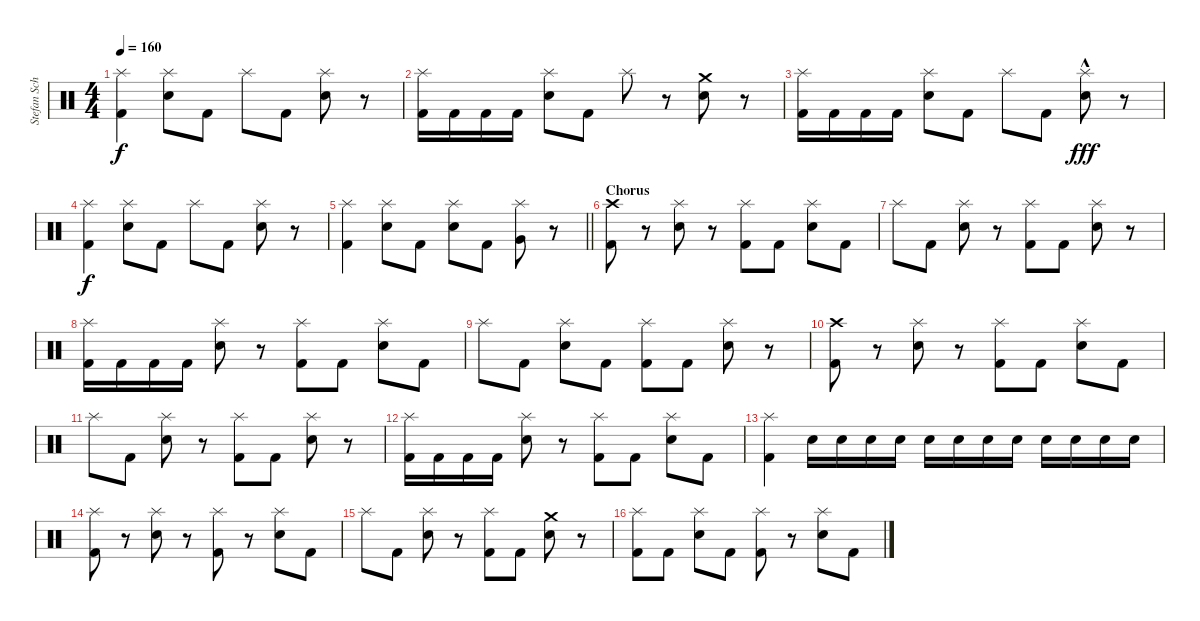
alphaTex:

\track ("Stefan Schwarzmann" "Stefan Sch") {instrument percussion}
\staff {score}
\articulation defaults
\ts (4 4)
\tempo 160
\clef neutral
\ks c
("Splash (hit)" "Kick (hit) 2").4{dy f} ("Splash (hit)" "Snare (hit) 2").8 "Kick (hit) 2".8 "Splash (hit)".8 "Kick (hit) 2".8 ("Splash (hit)" "Snare (hit) 2").8 r.8 |
("Splash (hit)" "Kick (hit) 2").16 "Kick (hit) 2".16 "Kick (hit) 2".16 "Kick (hit) 2".16 ("Splash (hit)" "Snare (hit) 2").8 "Kick (hit) 2".8 "Splash (hit)".8 r.8 ("Crash medium (hit)" "Snare (hit) 2").8 r.8 |
("Splash (hit)" "Kick (hit) 2").16 "Kick (hit) 2".16 "Kick (hit) 2".16 "Kick (hit) 2".16 ("Splash (hit)" "Snare (hit) 2").8 "Kick (hit) 2".8 "Splash (hit)".8 "Kick (hit) 2".8 ("Splash (hit)"{hac} "Snare (hit) 2").8{dy fff} r.8 |
("Splash (hit)" "Kick (hit) 2").4{dy f} ("Splash (hit)" "Snare (hit) 2").8 "Kick (hit) 2".8 "Splash (hit)".8 "Kick (hit) 2".8 ("Splash (hit)" "Snare (hit) 2").8 r.8 |
\barLineRight lightlight
("Splash (hit)" "Kick (hit) 2").4 ("Splash (hit)" "Snare (hit) 2").8 "Kick (hit) 2".8 ("Splash (hit)" "Snare (hit) 2").8 "Kick (hit) 2".8 ("Splash (hit)" "Very Low Tom (hit)").8 r.8 |
\section ("" "Chorus")
("Crash high (hit)" "Kick (hit) 2").8 r.8 ("Splash (hit)" "Snare (hit) 2").8 r.8 ("Splash (hit)" "Kick (hit) 2").8 "Kick (hit) 2".8 ("Splash (hit)" "Snare (hit) 2").8 "Kick (hit) 2".8 |
"Splash (hit)".8 "Kick (hit) 2".8 ("Splash (hit)" "Snare (hit) 2").8 r.8 ("Splash (hit)" "Kick (hit) 2").8 "Kick (hit) 2".8 ("Splash (hit)" "Snare (hit) 2").8 r.8 |
("Splash (hit)" "Kick (hit) 2").16 "Kick (hit) 2".16 "Kick (hit) 2".16 "Kick (hit) 2".16 ("Splash (hit)" "Snare (hit) 2").8 r.8 ("Splash (hit)" "Kick (hit) 2").8 "Kick (hit) 2".8 ("Splash (hit)" "Snare (hit) 2").8 "Kick (hit) 2".8 |
"Splash (hit)".8 "Kick (hit) 2".8 ("Splash (hit)" "Snare (hit) 2").8 "Kick (hit) 2".8 ("Splash (hit)" "Kick (hit) 2").8 "Kick (hit) 2".8 ("Splash (hit)" "Snare (hit) 2").8 r.8 |
("Crash high (hit)" "Kick (hit) 2").8 r.8 ("Splash (hit)" "Snare (hit) 2").8 r.8 ("Splash (hit)" "Kick (hit) 2").8 "Kick (hit) 2".8 ("Splash (hit)" "Snare (hit) 2").8 "Kick (hit) 2".8 |
"Splash (hit)".8 "Kick (hit) 2".8 ("Splash (hit)" "Snare (hit) 2").8 r.8 ("Splash (hit)" "Kick (hit) 2").8 "Kick (hit) 2".8 ("Splash (hit)" "Snare (hit) 2").8 r.8 |
("Splash (hit)" "Kick (hit) 2").16 "Kick (hit) 2".16 "Kick (hit) 2".16 "Kick (hit) 2".16 ("Splash (hit)" "Snare (hit) 2").8 r.8 ("Splash (hit)" "Kick (hit) 2").8 "Kick (hit) 2".8 ("Splash (hit)" "Snare (hit) 2").8 "Kick (hit) 2".8 |
("Splash (hit)" "Kick (hit) 2").4 "Snare (hit) 2".16 "Snare (hit) 2".16 "Snare (hit) 2".16 "Snare (hit) 2".16 "Snare (hit) 2".16 "Snare (hit) 2".16 "Snare (hit) 2".16 "Snare (hit) 2".16 "Snare (hit) 2".16 "Snare (hit) 2".16 "Snare (hit) 2".16 "Snare (hit) 2".16 |
("Splash (hit)" "Kick (hit) 2").8 r.8 ("Splash (hit)" "Snare (hit) 2").8 r.8 ("Splash (hit)" "Kick (hit) 2").8 r.8 ("Splash (hit)" "Snare (hit) 2").8 "Kick (hit) 2".8 |
"Splash (hit)".8 "Kick (hit) 2".8 ("Splash (hit)" "Snare (hit) 2").8 r.8 ("Splash (hit)" "Kick (hit) 2").8 "Kick (hit) 2".8 ("Crash medium (hit)" "Snare (hit) 2").8 r.8 |
("Splash (hit)" "Kick (hit) 2").8 "Kick (hit) 2".8 ("Splash (hit)" "Snare (hit) 2").8 "Kick (hit) 2".8 ("Splash (hit)" "Kick (hit) 2").8 r.8 ("Splash (hit)" "Snare (hit) 2").8 "Kick (hit) 2".8
